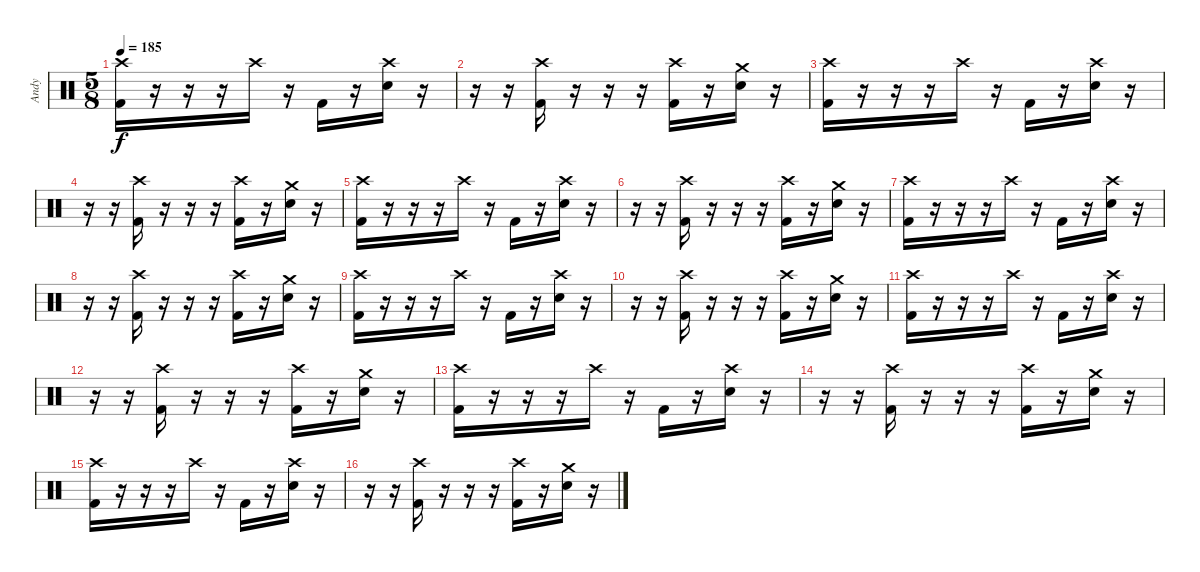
\track ("Andy" "Andy") {instrument percussion}
\staff {score}
\articulation defaults
\ts (5 8)
\tempo 185
\clef neutral
\ks c
("Crash high (hit)" "Kick (hit) 2").16{dy f} r.16 r.16 r.16 "Crash high (hit)".16 r.16 "Kick (hit) 2".16 r.16 ("Crash high (hit)" "Electric Snare (hit)").16 r.16 |
r.16 r.16 ("Crash high (hit)" "Kick (hit) 2").16 r.16 r.16 r.16 ("Crash high (hit)" "Kick (hit) 2").16 r.16 ("Crash medium (hit)" "Electric Snare (hit)").16 r.16 |
("Crash high (hit)" "Kick (hit) 2").16 r.16 r.16 r.16 "Crash high (hit)".16 r.16 "Kick (hit) 2".16 r.16 ("Crash high (hit)" "Electric Snare (hit)").16 r.16 |
r.16 r.16 ("Crash high (hit)" "Kick (hit) 2").16 r.16 r.16 r.16 ("Crash high (hit)" "Kick (hit) 2").16 r.16 ("Crash medium (hit)" "Electric Snare (hit)").16 r.16 |
("Crash high (hit)" "Kick (hit) 2").16 r.16 r.16 r.16 "Crash high (hit)".16 r.16 "Kick (hit) 2".16 r.16 ("Crash high (hit)" "Electric Snare (hit)").16 r.16 |
r.16 r.16 ("Crash high (hit)" "Kick (hit) 2").16 r.16 r.16 r.16 ("Crash high (hit)" "Kick (hit) 2").16 r.16 ("Crash medium (hit)" "Electric Snare (hit)").16 r.16 |
("Crash high (hit)" "Kick (hit) 2").16 r.16 r.16 r.16 "Crash high (hit)".16 r.16 "Kick (hit) 2".16 r.16 ("Crash high (hit)" "Electric Snare (hit)").16 r.16 |
r.16 r.16 ("Crash high (hit)" "Kick (hit) 2").16 r.16 r.16 r.16 ("Crash high (hit)" "Kick (hit) 2").16 r.16 ("Crash medium (hit)" "Electric Snare (hit)").16 r.16 |
("Crash high (hit)" "Kick (hit) 2").16 r.16 r.16 r.16 "Crash high (hit)".16 r.16 "Kick (hit) 2".16 r.16 ("Crash high (hit)" "Electric Snare (hit)").16 r.16 |
r.16 r.16 ("Crash high (hit)" "Kick (hit) 2").16 r.16 r.16 r.16 ("Crash high (hit)" "Kick (hit) 2").16 r.16 ("Crash medium (hit)" "Electric Snare (hit)").16 r.16 |
("Crash high (hit)" "Kick (hit) 2").16 r.16 r.16 r.16 "Crash high (hit)".16 r.16 "Kick (hit) 2".16 r.16 ("Crash high (hit)" "Electric Snare (hit)").16 r.16 |
r.16 r.16 ("Crash high (hit)" "Kick (hit) 2").16 r.16 r.16 r.16 ("Crash high (hit)" "Kick (hit) 2").16 r.16 ("Crash medium (hit)" "Electric Snare (hit)").16 r.16 |
("Crash high (hit)" "Kick (hit) 2").16 r.16 r.16 r.16 "Crash high (hit)".16 r.16 "Kick (hit) 2".16 r.16 ("Crash high (hit)" "Electric Snare (hit)").16 r.16 |
r.16 r.16 ("Crash high (hit)" "Kick (hit) 2").16 r.16 r.16 r.16 ("Crash high (hit)" "Kick (hit) 2").16 r.16 ("Crash medium (hit)" "Electric Snare (hit)").16 r.16 |
("Crash high (hit)" "Kick (hit) 2").16 r.16 r.16 r.16 "Crash high (hit)".16 r.16 "Kick (hit) 2".16 r.16 ("Crash high (hit)" "Electric Snare (hit)").16 r.16 |
r.16 r.16 ("Crash high (hit)" "Kick (hit) 2").16 r.16 r.16 r.16 ("Crash high (hit)" "Kick (hit) 2").16 r.16 ("Crash medium (hit)" "Electric Snare (hit)").16 r.16
